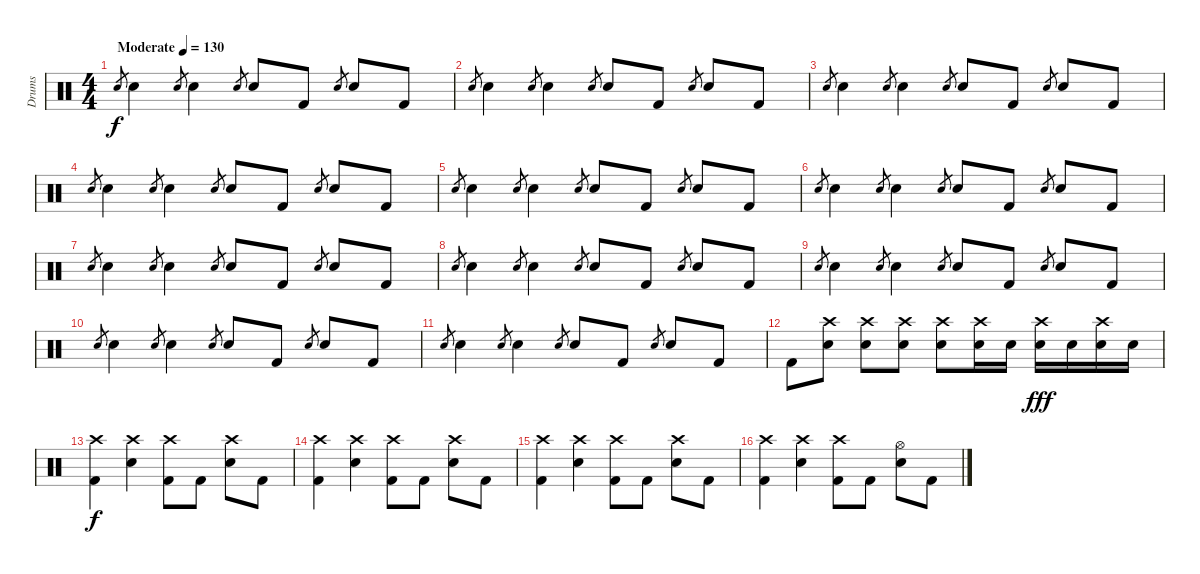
\track ("Drums" "Drums") {instrument percussion}
\staff {score}
\articulation defaults
\ts (4 4)
\tempo (130 "Moderate")
\clef neutral
\ks c "Electric Snare (hit)".8{gr dy f} "Electric Snare (hit)".4 "Electric Snare (hit)".8{gr} "Electric Snare (hit)".4 "Electric Snare (hit)".8{gr} "Electric Snare (hit)".8 "Kick (hit) 2".8 "Electric Snare (hit)".8{gr} "Electric Snare (hit)".8 "Kick (hit) 2".8
|
"Electric Snare (hit)".8{gr} "Electric Snare (hit)".4 "Electric Snare (hit)".8{gr} "Electric Snare (hit)".4 "Electric Snare (hit)".8{gr} "Electric Snare (hit)".8 "Kick (hit) 2".8 "Electric Snare (hit)".8{gr} "Electric Snare (hit)".8 "Kick (hit) 2".8 |
"Electric Snare (hit)".8{gr} "Electric Snare (hit)".4 "Electric Snare (hit)".8{gr} "Electric Snare (hit)".4 "Electric Snare (hit)".8{gr} "Electric Snare (hit)".8 "Kick (hit) 2".8 "Electric Snare (hit)".8{gr} "Electric Snare (hit)".8 "Kick (hit) 2".8 |
"Electric Snare (hit)".8{gr} "Electric Snare (hit)".4 "Electric Snare (hit)".8{gr} "Electric Snare (hit)".4 "Electric Snare (hit)".8{gr} "Electric Snare (hit)".8 "Kick (hit) 2".8 "Electric Snare (hit)".8{gr} "Electric Snare (hit)".8 "Kick (hit) 2".8 |
"Electric Snare (hit)".8{gr} "Electric Snare (hit)".4 "Electric Snare (hit)".8{gr} "Electric Snare (hit)".4 "Electric Snare (hit)".8{gr} "Electric Snare (hit)".8 "Kick (hit) 2".8 "Electric Snare (hit)".8{gr} "Electric Snare (hit)".8 "Kick (hit) 2".8 |
"Electric Snare (hit)".8{gr} "Electric Snare (hit)".4 "Electric Snare (hit)".8{gr} "Electric Snare (hit)".4 "Electric Snare (hit)".8{gr} "Electric Snare (hit)".8 "Kick (hit) 2".8 "Electric Snare (hit)".8{gr} "Electric Snare (hit)".8 "Kick (hit) 2".8 |
"Electric Snare (hit)".8{gr} "Electric Snare (hit)".4 "Electric Snare (hit)".8{gr} "Electric Snare (hit)".4 "Electric Snare (hit)".8{gr} "Electric Snare (hit)".8 "Kick (hit) 2".8 "Electric Snare (hit)".8{gr} "Electric Snare (hit)".8 "Kick (hit) 2".8 |
"Electric Snare (hit)".8{gr} "Electric Snare (hit)".4 "Electric Snare (hit)".8{gr} "Electric Snare (hit)".4 "Electric Snare (hit)".8{gr} "Electric Snare (hit)".8 "Kick (hit) 2".8 "Electric Snare (hit)".8{gr} "Electric Snare (hit)".8 "Kick (hit) 2".8 |
"Electric Snare (hit)".8{gr} "Electric Snare (hit)".4 "Electric Snare (hit)".8{gr} "Electric Snare (hit)".4 "Electric Snare (hit)".8{gr} "Electric Snare (hit)".8 "Kick (hit) 2".8 "Electric Snare (hit)".8{gr} "Electric Snare (hit)".8 "Kick (hit) 2".8 |
"Electric Snare (hit)".8{gr} "Electric Snare (hit)".4 "Electric Snare (hit)".8{gr} "Electric Snare (hit)".4 "Electric Snare (hit)".8{gr} "Electric Snare (hit)".8 "Kick (hit) 2".8 "Electric Snare (hit)".8{gr} "Electric Snare (hit)".8 "Kick (hit) 2".8 |
"Electric Snare (hit)".8{gr} "Electric Snare (hit)".4 "Electric Snare (hit)".8{gr} "Electric Snare (hit)".4 "Electric Snare (hit)".8{gr} "Electric Snare (hit)".8 "Kick (hit) 2".8 "Electric Snare (hit)".8{gr} "Electric Snare (hit)".8 "Kick (hit) 2".8 |
"Kick (hit) 2".8 ("Crash high (hit)" "Electric Snare (hit)").8 ("Crash high (hit)" "Electric Snare (hit)").8 ("Crash high (hit)" "Electric Snare (hit)").8 ("Crash high (hit)" "Electric Snare (hit)").8 ("Crash high (hit)" "Electric Snare (hit)").16 "Electric Snare (hit)".16 ("Crash high (hit)" "Electric Snare (hit)").16{dy fff} "Electric Snare (hit)".16 ("Crash high (hit)" "Electric Snare (hit)").16 "Electric Snare (hit)".16 |
("Crash high (hit)" "Kick (hit) 2").4{dy f} ("Crash high (hit)" "Electric Snare (hit)").4 ("Crash high (hit)" "Kick (hit) 2").8 "Kick (hit) 2".8 ("Crash high (hit)" "Electric Snare (hit)").8 "Kick (hit) 2".8 |
("Crash high (hit)" "Kick (hit) 2").4 ("Crash high (hit)" "Electric Snare (hit)").4 ("Crash high (hit)" "Kick (hit) 2").8 "Kick (hit) 2".8 ("Crash high (hit)" "Electric Snare (hit)").8 "Kick (hit) 2".8 |
("Crash high (hit)" "Kick (hit) 2").4 ("Crash high (hit)" "Electric Snare (hit)").4 ("Crash high (hit)" "Kick (hit) 2").8 "Kick (hit) 2".8 ("Crash high (hit)" "Electric Snare (hit)").8 "Kick (hit) 2".8 |
("Crash high (hit)" "Kick (hit) 2").4 ("Crash high (hit)" "Electric Snare (hit)").4 ("Crash high (hit)" "Kick (hit) 2").8 "Kick (hit) 2".8 ("Hi-Hat (open)" "Electric Snare (hit)").8 "Kick (hit) 2".8
